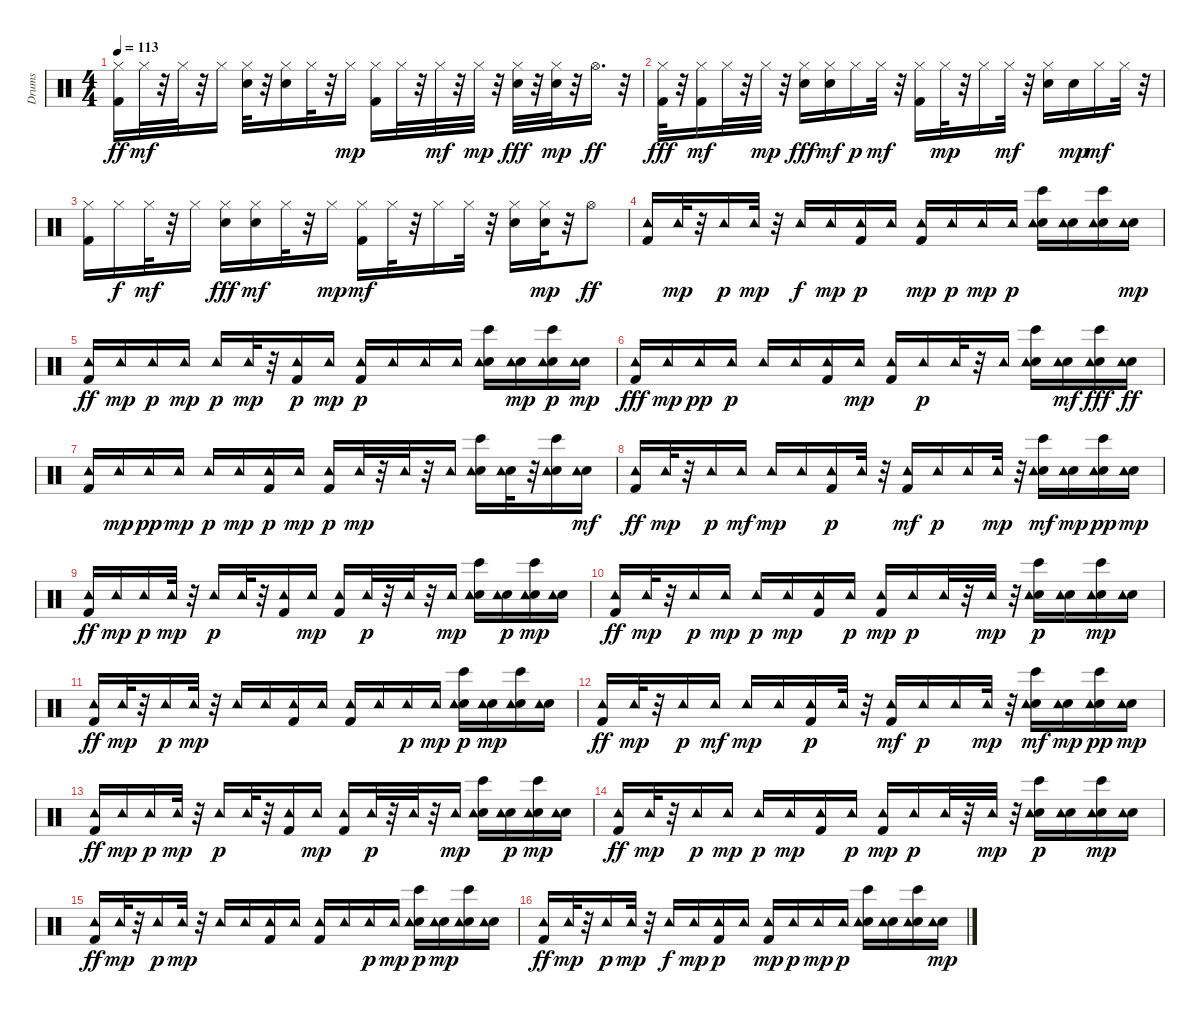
\track ("Drums" "Drums") {instrument percussion}
\staff {score}
\articulation defaults
\ts (4 4)
\tempo 113
\clef neutral
\ks c
("Kick (hit) 2" "Hi-Hat (closed)").16{dy ff} "Hi-Hat (closed)".32{dy mf} r.32 "Hi-Hat (closed)".32 r.32 "Hi-Hat (closed)".16 ("Electric Snare (hit)" "Hi-Hat (closed)").32 r.32 ("Electric Snare (hit)" "Hi-Hat (closed)").16 "Hi-Hat (closed)".32 r.32 "Hi-Hat (closed)".16{dy mp} ("Kick (hit) 2" "Hi-Hat (closed)").16 "Hi-Hat (closed)".32 r.32 "Hi-Hat (closed)".32{dy mf} r.32 "Hi-Hat (closed)".32{dy mp} r.32 ("Electric Snare (hit)" "Hi-Hat (closed)").32{dy fff} r.32 ("Electric Snare (hit)" "Hi-Hat (closed)").32{dy mp} r.32 "Hi-Hat (open)".16{d dy ff} r.32 |
("Kick (hit) 2" "Hi-Hat (closed)").32{dy fff} r.32 ("Kick (hit) 2" "Hi-Hat (closed)").16{dy mf} "Hi-Hat (closed)".32 r.32 "Hi-Hat (closed)".32{dy mp} r.32 ("Electric Snare (hit)" "Hi-Hat (closed)").16{dy fff} ("Electric Snare (hit)" "Hi-Hat (closed)").16{dy mf} "Hi-Hat (closed)".16{dy p} "Hi-Hat (closed)".32{dy mf} r.32 ("Kick (hit) 2" "Hi-Hat (closed)").16 "Hi-Hat (closed)".32{dy mp} r.32 "Hi-Hat (closed)".16 "Hi-Hat (closed)".32{dy mf} r.32 ("Electric Snare (hit)" "Hi-Hat (closed)").16 "Electric Snare (hit)".16{dy mp} "Hi-Hat (closed)".16{dy mf} "Hi-Hat (closed)".32 r.32 |
("Kick (hit) 2" "Hi-Hat (closed)").16 "Hi-Hat (closed)".16{dy f} "Hi-Hat (closed)".32{dy mf} r.32 "Hi-Hat (closed)".16 ("Electric Snare (hit)" "Hi-Hat (closed)").16{dy fff} ("Electric Snare (hit)" "Hi-Hat (closed)").16{dy mf} "Hi-Hat (closed)".32 r.32 "Hi-Hat (closed)".16{dy mp} ("Kick (hit) 2" "Hi-Hat (closed)").16{dy mf} "Hi-Hat (closed)".32 r.32 "Hi-Hat (closed)".16 "Hi-Hat (closed)".32 r.32 ("Electric Snare (hit)" "Hi-Hat (closed)").16 ("Electric Snare (hit)" "Hi-Hat (closed)").32{dy mp} r.32 "Hi-Hat (open)".8{dy ff} |
("Kick (hit) 2" "Tambourine (hit)").16 "Tambourine (hit)".32{dy mp} r.32 "Tambourine (hit)".16{dy p} "Tambourine (hit)".32{dy mp} r.32 "Tambourine (hit)".16{dy f} "Tambourine (hit)".16{dy mp} ("Kick (hit) 2" "Tambourine (hit)").16{dy p} "Tambourine (hit)".16 ("Kick (hit) 2" "Tambourine (hit)").16{dy mp} "Tambourine (hit)".16{dy p} "Tambourine (hit)".16{dy mp} "Tambourine (hit)".16{dy p} ("Electric Snare (hit)" "Bongo High (hit)" "Tambourine (hit)").16 ("Electric Snare (hit)" "Tambourine (hit)").16 ("Electric Snare (hit)" "Bongo High (hit)" "Tambourine (hit)").16 ("Electric Snare (hit)" "Tambourine (hit)").16{dy mp} |
("Kick (hit) 2" "Tambourine (hit)").16{dy ff} "Tambourine (hit)".16{dy mp} "Tambourine (hit)".16{dy p} "Tambourine (hit)".16{dy mp} "Tambourine (hit)".16{dy p} "Tambourine (hit)".32{dy mp} r.32 ("Kick (hit) 2" "Tambourine (hit)").16{dy p} "Tambourine (hit)".16{dy mp} ("Kick (hit) 2" "Tambourine (hit)").16{dy p} "Tambourine (hit)".16 "Tambourine (hit)".16 "Tambourine (hit)".16 ("Electric Snare (hit)" "Bongo High (hit)" "Tambourine (hit)").16 ("Electric Snare (hit)" "Tambourine (hit)").16{dy mp} ("Electric Snare (hit)" "Bongo High (hit)" "Tambourine (hit)").16{dy p} ("Electric Snare (hit)" "Tambourine (hit)").16{dy mp} |
("Kick (hit) 2" "Tambourine (hit)").16{dy fff} "Tambourine (hit)".16{dy mp} "Tambourine (hit)".16{dy pp} "Tambourine (hit)".16{dy p} "Tambourine (hit)".16 "Tambourine (hit)".16 ("Kick (hit) 2" "Tambourine (hit)").16 "Tambourine (hit)".16{dy mp} ("Kick (hit) 2" "Tambourine (hit)").16 "Tambourine (hit)".16{dy p} "Tambourine (hit)".32 r.32 "Tambourine (hit)".16 ("Electric Snare (hit)" "Bongo High (hit)" "Tambourine (hit)").16 ("Electric Snare (hit)" "Tambourine (hit)").16{dy mf} ("Electric Snare (hit)" "Bongo High (hit)" "Tambourine (hit)").16{dy fff} ("Electric Snare (hit)" "Tambourine (hit)").16{dy ff} |
("Kick (hit) 2" "Tambourine (hit)").16 "Tambourine (hit)".16{dy mp} "Tambourine (hit)".16{dy pp} "Tambourine (hit)".16{dy mp} "Tambourine (hit)".16{dy p} "Tambourine (hit)".16{dy mp} ("Kick (hit) 2" "Tambourine (hit)").16{dy p} "Tambourine (hit)".16{dy mp} ("Kick (hit) 2" "Tambourine (hit)").16{dy p} "Tambourine (hit)".32{dy mp} r.32 "Tambourine (hit)".32 r.32 "Tambourine (hit)".16 ("Electric Snare (hit)" "Bongo High (hit)" "Tambourine (hit)").16 ("Electric Snare (hit)" "Tambourine (hit)").32 r.32 ("Electric Snare (hit)" "Bongo High (hit)" "Tambourine (hit)").16 ("Electric Snare (hit)" "Tambourine (hit)").16{dy mf} |
("Kick (hit) 2" "Tambourine (hit)").16{dy ff} "Tambourine (hit)".32{dy mp} r.32 "Tambourine (hit)".16{dy p} "Tambourine (hit)".16{dy mf} "Tambourine (hit)".16{dy mp} "Tambourine (hit)".16 ("Kick (hit) 2" "Tambourine (hit)").16{dy p} "Tambourine (hit)".32 r.32 ("Kick (hit) 2" "Tambourine (hit)").16{dy mf} "Tambourine (hit)".16{dy p} "Tambourine (hit)".16 "Tambourine (hit)".32{dy mp} r.32 ("Electric Snare (hit)" "Bongo High (hit)" "Tambourine (hit)").16{dy mf} ("Electric Snare (hit)" "Tambourine (hit)").16{dy mp} ("Electric Snare (hit)" "Bongo High (hit)" "Tambourine (hit)").16{dy pp} ("Electric Snare (hit)" "Tambourine (hit)").16{dy mp} |
("Kick (hit) 2" "Tambourine (hit)").16{dy ff} "Tambourine (hit)".16{dy mp} "Tambourine (hit)".16{dy p} "Tambourine (hit)".32{dy mp} r.32 "Tambourine (hit)".16{dy p} "Tambourine (hit)".32 r.32 ("Kick (hit) 2" "Tambourine (hit)").16 "Tambourine (hit)".16{dy mp} ("Kick (hit) 2" "Tambourine (hit)").16 "Tambourine (hit)".32{dy p} r.32 "Tambourine (hit)".32 r.32 "Tambourine (hit)".16{dy mp} ("Electric Snare (hit)" "Bongo High (hit)" "Tambourine (hit)").16 ("Electric Snare (hit)" "Tambourine (hit)").16{dy p} ("Electric Snare (hit)" "Bongo High (hit)" "Tambourine (hit)").16{dy mp} ("Electric Snare (hit)" "Tambourine (hit)").16 |
("Kick (hit) 2" "Tambourine (hit)").16{dy ff} "Tambourine (hit)".32{dy mp} r.32 "Tambourine (hit)".16{dy p} "Tambourine (hit)".16{dy mp} "Tambourine (hit)".16{dy p} "Tambourine (hit)".16{dy mp} ("Kick (hit) 2" "Tambourine (hit)").16 "Tambourine (hit)".16{dy p} ("Kick (hit) 2" "Tambourine (hit)").16{dy mp} "Tambourine (hit)".16{dy p} "Tambourine (hit)".32 r.32 "Tambourine (hit)".32{dy mp} r.32 ("Electric Snare (hit)" "Bongo High (hit)" "Tambourine (hit)").16{dy p} ("Electric Snare (hit)" "Tambourine (hit)").16 ("Electric Snare (hit)" "Bongo High (hit)" "Tambourine (hit)").16{dy mp} ("Electric Snare (hit)" "Tambourine (hit)").16 |
("Kick (hit) 2" "Tambourine (hit)").16{dy ff} "Tambourine (hit)".32{dy mp} r.32 "Tambourine (hit)".16{dy p} "Tambourine (hit)".32{dy mp} r.32 "Tambourine (hit)".16 "Tambourine (hit)".16 ("Kick (hit) 2" "Tambourine (hit)").16 "Tambourine (hit)".16 ("Kick (hit) 2" "Tambourine (hit)").16 "Tambourine (hit)".16 "Tambourine (hit)".16{dy p} "Tambourine (hit)".16{dy mp} ("Electric Snare (hit)" "Bongo High (hit)" "Tambourine (hit)").16{dy p} ("Electric Snare (hit)" "Tambourine (hit)").16{dy mp} ("Electric Snare (hit)" "Bongo High (hit)" "Tambourine (hit)").16 ("Electric Snare (hit)" "Tambourine (hit)").16 |
("Kick (hit) 2" "Tambourine (hit)").16{dy ff} "Tambourine (hit)".32{dy mp} r.32 "Tambourine (hit)".16{dy p} "Tambourine (hit)".16{dy mf} "Tambourine (hit)".16{dy mp} "Tambourine (hit)".16 ("Kick (hit) 2" "Tambourine (hit)").16{dy p} "Tambourine (hit)".32 r.32 ("Kick (hit) 2" "Tambourine (hit)").16{dy mf} "Tambourine (hit)".16{dy p} "Tambourine (hit)".16 "Tambourine (hit)".32{dy mp} r.32 ("Electric Snare (hit)" "Bongo High (hit)" "Tambourine (hit)").16{dy mf} ("Electric Snare (hit)" "Tambourine (hit)").16{dy mp} ("Electric Snare (hit)" "Bongo High (hit)" "Tambourine (hit)").16{dy pp} ("Electric Snare (hit)" "Tambourine (hit)").16{dy mp} |
("Kick (hit) 2" "Tambourine (hit)").16{dy ff} "Tambourine (hit)".16{dy mp} "Tambourine (hit)".16{dy p} "Tambourine (hit)".32{dy mp} r.32 "Tambourine (hit)".16{dy p} "Tambourine (hit)".32 r.32 ("Kick (hit) 2" "Tambourine (hit)").16 "Tambourine (hit)".16{dy mp} ("Kick (hit) 2" "Tambourine (hit)").16 "Tambourine (hit)".32{dy p} r.32 "Tambourine (hit)".32 r.32 "Tambourine (hit)".16{dy mp} ("Electric Snare (hit)" "Bongo High (hit)" "Tambourine (hit)").16 ("Electric Snare (hit)" "Tambourine (hit)").16{dy p} ("Electric Snare (hit)" "Bongo High (hit)" "Tambourine (hit)").16{dy mp} ("Electric Snare (hit)" "Tambourine (hit)").16 |
("Kick (hit) 2" "Tambourine (hit)").16{dy ff} "Tambourine (hit)".32{dy mp} r.32 "Tambourine (hit)".16{dy p} "Tambourine (hit)".16{dy mp} "Tambourine (hit)".16{dy p} "Tambourine (hit)".16{dy mp} ("Kick (hit) 2" "Tambourine (hit)").16 "Tambourine (hit)".16{dy p} ("Kick (hit) 2" "Tambourine (hit)").16{dy mp} "Tambourine (hit)".16{dy p} "Tambourine (hit)".32 r.32 "Tambourine (hit)".32{dy mp} r.32 ("Electric Snare (hit)" "Bongo High (hit)" "Tambourine (hit)").16{dy p} ("Electric Snare (hit)" "Tambourine (hit)").16 ("Electric Snare (hit)" "Bongo High (hit)" "Tambourine (hit)").16{dy mp} ("Electric Snare (hit)" "Tambourine (hit)").16 |
("Kick (hit) 2" "Tambourine (hit)").16{dy ff} "Tambourine (hit)".32{dy mp} r.32 "Tambourine (hit)".16{dy p} "Tambourine (hit)".32{dy mp} r.32 "Tambourine (hit)".16 "Tambourine (hit)".16 ("Kick (hit) 2" "Tambourine (hit)").16 "Tambourine (hit)".16 ("Kick (hit) 2" "Tambourine (hit)").16 "Tambourine (hit)".16 "Tambourine (hit)".16{dy p} "Tambourine (hit)".16{dy mp} ("Electric Snare (hit)" "Bongo High (hit)" "Tambourine (hit)").16{dy p} ("Electric Snare (hit)" "Tambourine (hit)").16{dy mp} ("Electric Snare (hit)" "Bongo High (hit)" "Tambourine (hit)").16 ("Electric Snare (hit)" "Tambourine (hit)").16 |
("Kick (hit) 2" "Tambourine (hit)").16{dy ff} "Tambourine (hit)".32{dy mp} r.32 "Tambourine (hit)".16{dy p} "Tambourine (hit)".32{dy mp} r.32 "Tambourine (hit)".16{dy f} "Tambourine (hit)".16{dy mp} ("Kick (hit) 2" "Tambourine (hit)").16{dy p} "Tambourine (hit)".16 ("Kick (hit) 2" "Tambourine (hit)").16{dy mp} "Tambourine (hit)".16{dy p} "Tambourine (hit)".16{dy mp} "Tambourine (hit)".16{dy p} ("Electric Snare (hit)" "Bongo High (hit)" "Tambourine (hit)").16 ("Electric Snare (hit)" "Tambourine (hit)").16 ("Electric Snare (hit)" "Bongo High (hit)" "Tambourine (hit)").16 ("Electric Snare (hit)" "Tambourine (hit)").16{dy mp}
